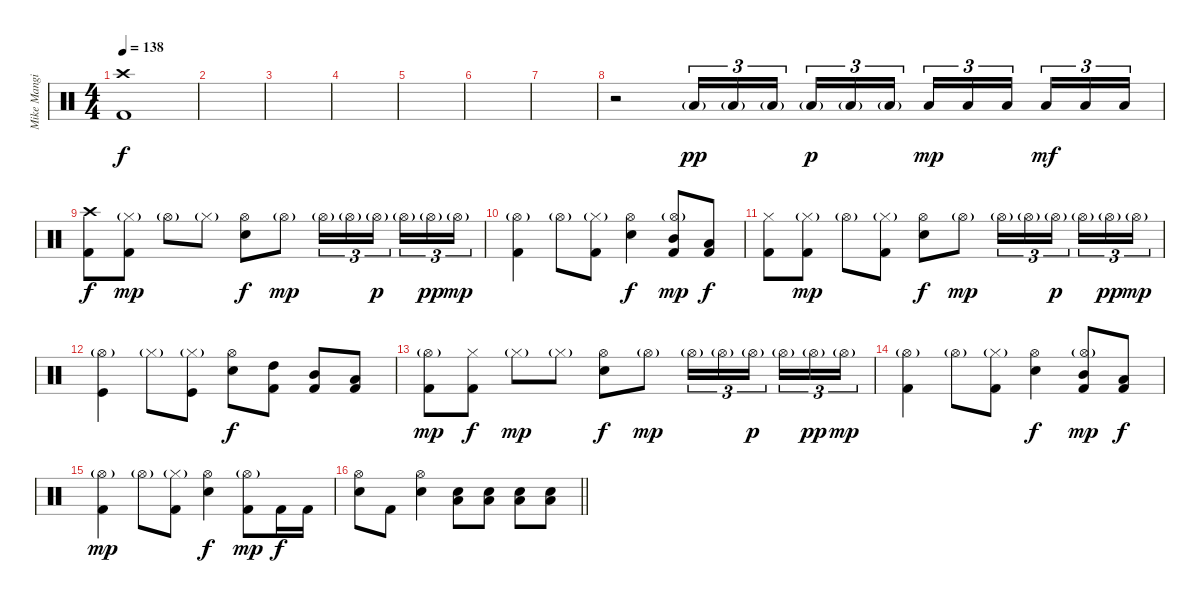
\track ("Mike Mangini" "Mike Mangi") {instrument percussion}
\staff {score}
\articulation defaults
\ts (4 4)
\tempo 138
\clef neutral
\ks c
("Crash high (hit)" "Kick (hit) 2").1{dy f} |
|
|
|
|
|
|
r.2 "Low Tom (hit)"{g}.16{tu (3 2) dy pp} "Low Tom (hit)"{g}.16{tu (3 2)} "Low Tom (hit)"{g}.16{tu (3 2) beam splitsecondary} "Low Tom (hit)"{g}.16{tu (3 2) dy p} "Low Tom (hit)"{g}.16{tu (3 2)} "Low Tom (hit)"{g}.16{tu (3 2)} "Low Tom (hit)".16{tu (3 2) dy mp} "Low Tom (hit)".16{tu (3 2)} "Low Tom (hit)".16{tu (3 2) beam splitsecondary} "Low Tom (hit)".16{tu (3 2) dy mf} "Low Tom (hit)".16{tu (3 2)} "Low Tom (hit)".16{tu (3 2)} |
("Crash high (hit)" "Kick (hit) 2").8{dy f} ("Hi-Hat (closed)"{g} "Kick (hit) 2").8{dy mp} "Hi-Hat (open)"{g}.8 "Hi-Hat (closed)"{g}.8 ("Hi-Hat (open)" "Electric Snare (hit)").8{dy f} "Hi-Hat (open)"{g}.8{dy mp} "Hi-Hat (open)"{g}.16{tu (3 2)} "Hi-Hat (open)"{g}.16{tu (3 2)} "Hi-Hat (open)"{g}.16{tu (3 2) dy p beam splitsecondary} "Hi-Hat (open)"{g}.16{tu (3 2)} "Hi-Hat (open)"{g}.16{tu (3 2) dy pp} "Hi-Hat (open)"{g}.16{tu (3 2) dy mp} |
("Hi-Hat (open)"{g} "Kick (hit) 2").4 "Hi-Hat (open)"{g}.8 ("Hi-Hat (closed)"{g} "Kick (hit) 2").8 ("Hi-Hat (open)" "Electric Snare (hit)").4{dy f} ("Hi-Hat (open)"{g} "Mid Tom (hit)" "Kick (hit) 2").8{dy mp} ("Low Tom (hit)" "Kick (hit) 2").8{dy f} |
("Hi-Hat (closed)" "Kick (hit) 2").8 ("Hi-Hat (closed)"{g} "Kick (hit) 2").8{dy mp} "Hi-Hat (open)"{g}.8 ("Hi-Hat (closed)"{g} "Kick (hit) 2").8 ("Hi-Hat (open)" "Electric Snare (hit)").8{dy f} "Hi-Hat (open)"{g}.8{dy mp} "Hi-Hat (open)"{g}.16{tu (3 2)} "Hi-Hat (open)"{g}.16{tu (3 2)} "Hi-Hat (open)"{g}.16{tu (3 2) dy p beam splitsecondary} "Hi-Hat (open)"{g}.16{tu (3 2)} "Hi-Hat (open)"{g}.16{tu (3 2) dy pp} "Hi-Hat (open)"{g}.16{tu (3 2) dy mp} |
("Hi-Hat (open)"{g} "Kick (hit)").4 "Hi-Hat (closed)"{g}.8 ("Hi-Hat (closed)"{g} "Kick (hit)").8 ("Hi-Hat (open)" "Electric Snare (hit)").8{dy f} ("High Tom (hit)" "Kick (hit) 2").8 ("Mid Tom (hit)" "Kick (hit) 2").8 ("Low Tom (hit)" "Kick (hit) 2").8 |
("Hi-Hat (open)"{g} "Kick (hit) 2").8{dy mp} ("Hi-Hat (closed)" "Kick (hit) 2").8{dy f} "Hi-Hat (closed)"{g}.8{dy mp} "Hi-Hat (closed)"{g}.8 ("Hi-Hat (open)" "Electric Snare (hit)").8{dy f} "Hi-Hat (open)"{g}.8{dy mp} "Hi-Hat (open)"{g}.16{tu (3 2)} "Hi-Hat (open)"{g}.16{tu (3 2)} "Hi-Hat (open)"{g}.16{tu (3 2) dy p beam splitsecondary} "Hi-Hat (open)"{g}.16{tu (3 2)} "Hi-Hat (open)"{g}.16{tu (3 2) dy pp} "Hi-Hat (open)"{g}.16{tu (3 2) dy mp} |
("Hi-Hat (open)"{g} "Kick (hit) 2").4 "Hi-Hat (open)"{g}.8 ("Hi-Hat (closed)"{g} "Kick (hit) 2").8 ("Hi-Hat (open)" "Electric Snare (hit)").4{dy f} ("Hi-Hat (open)"{g} "Mid Tom (hit)" "Kick (hit) 2").8{dy mp} ("Low Tom (hit)" "Kick (hit) 2").8{dy f} |
("Hi-Hat (open)"{g} "Kick (hit) 2").4{dy mp} "Hi-Hat (open)"{g}.8 ("Hi-Hat (closed)"{g} "Kick (hit) 2").8 ("Hi-Hat (open)" "Electric Snare (hit)").4{dy f} ("Hi-Hat (open)"{g} "Kick (hit) 2").8{dy mp} "Kick (hit) 2".16{dy f} "Kick (hit) 2".16 |
\barLineRight lightlight
("Hi-Hat (open)" "Electric Snare (hit)").8 "Kick (hit) 2".8 ("Hi-Hat (open)" "Electric Snare (hit)").4 ("Low Tom (hit)" "Electric Snare (hit)").8 ("Low Tom (hit)" "Electric Snare (hit)").8 ("Low Tom (hit)" "Electric Snare (hit)").8 ("Low Tom (hit)" "Electric Snare (hit)").8
